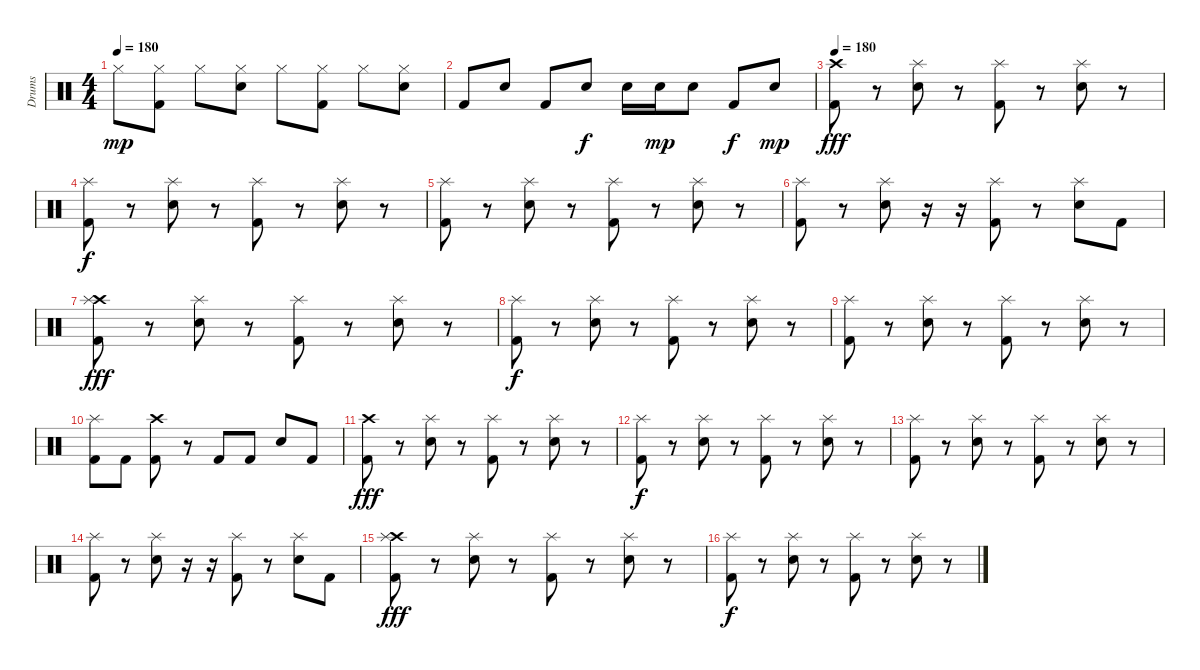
\track ("Drums" "Drums") {instrument percussion}
\staff {score}
\articulation defaults
\ts (4 4)
\tempo 180
\clef neutral
\ks c "Hi-Hat (closed)".8{dy mp}
("Hi-Hat (closed)" "Kick (hit) 2").8 "Hi-Hat (closed)".8 ("Hi-Hat (closed)" "Electric Snare (hit)").8 "Hi-Hat (closed)".8 ("Hi-Hat (closed)" "Kick (hit) 2").8 "Hi-Hat (closed)".8 ("Hi-Hat (closed)" "Electric Snare (hit)").8 |
"Kick (hit) 2".8 "Electric Snare (hit)".8 "Kick (hit) 2".8 "Electric Snare (hit)".8{dy f} "Electric Snare (hit)".16 "Electric Snare (hit)".16{dy mp} "Electric Snare (hit)".8 "Kick (hit) 2".8{dy f} "Electric Snare (hit)".8{dy mp} |
\tempo 180
("Crash high (hit)" "Kick (hit) 2").8{dy fff} r.8 ("Splash (hit)" "Electric Snare (hit)").8 r.8 ("Splash (hit)" "Kick (hit) 2").8 r.8 ("Splash (hit)" "Electric Snare (hit)").8 r.8 |
("Splash (hit)" "Kick (hit) 2").8{dy f} r.8 ("Splash (hit)" "Electric Snare (hit)").8 r.8 ("Splash (hit)" "Kick (hit) 2").8 r.8 ("Splash (hit)" "Electric Snare (hit)").8 r.8 |
("Splash (hit)" "Kick (hit) 2").8 r.8 ("Splash (hit)" "Electric Snare (hit)").8 r.8 ("Splash (hit)" "Kick (hit) 2").8 r.8 ("Splash (hit)" "Electric Snare (hit)").8 r.8 |
("Splash (hit)" "Kick (hit) 2").8 r.8 ("Splash (hit)" "Electric Snare (hit)").8 r.16 r.16 ("Splash (hit)" "Kick (hit) 2").8 r.8 ("Splash (hit)" "Electric Snare (hit)").8 "Kick (hit) 2".8 |
("Crash high (hit)" "Splash (hit)" "Kick (hit) 2").8{dy fff} r.8 ("Splash (hit)" "Electric Snare (hit)").8 r.8 ("Splash (hit)" "Kick (hit) 2").8 r.8 ("Splash (hit)" "Electric Snare (hit)").8 r.8 |
("Splash (hit)" "Kick (hit) 2").8{dy f} r.8 ("Splash (hit)" "Electric Snare (hit)").8 r.8 ("Splash (hit)" "Kick (hit) 2").8 r.8 ("Splash (hit)" "Electric Snare (hit)").8 r.8 |
("Splash (hit)" "Kick (hit) 2").8 r.8 ("Splash (hit)" "Electric Snare (hit)").8 r.8 ("Splash (hit)" "Kick (hit) 2").8 r.8 ("Splash (hit)" "Electric Snare (hit)").8 r.8 |
("Splash (hit)" "Kick (hit) 2").8 "Kick (hit) 2".8 ("Crash high (hit)" "Kick (hit) 2").8 r.8 "Kick (hit) 2".8 "Kick (hit) 2".8 "Electric Snare (hit)".8 "Kick (hit) 2".8 |
("Crash high (hit)" "Kick (hit) 2").8{dy fff} r.8 ("Splash (hit)" "Electric Snare (hit)").8 r.8 ("Splash (hit)" "Kick (hit) 2").8 r.8 ("Splash (hit)" "Electric Snare (hit)").8 r.8 |
("Splash (hit)" "Kick (hit) 2").8{dy f} r.8 ("Splash (hit)" "Electric Snare (hit)").8 r.8 ("Splash (hit)" "Kick (hit) 2").8 r.8 ("Splash (hit)" "Electric Snare (hit)").8 r.8 |
("Splash (hit)" "Kick (hit) 2").8 r.8 ("Splash (hit)" "Electric Snare (hit)").8 r.8 ("Splash (hit)" "Kick (hit) 2").8 r.8 ("Splash (hit)" "Electric Snare (hit)").8 r.8 |
("Splash (hit)" "Kick (hit) 2").8 r.8 ("Splash (hit)" "Electric Snare (hit)").8 r.16 r.16 ("Splash (hit)" "Kick (hit) 2").8 r.8 ("Splash (hit)" "Electric Snare (hit)").8 "Kick (hit) 2".8 |
("Crash high (hit)" "Splash (hit)" "Kick (hit) 2").8{dy fff} r.8 ("Splash (hit)" "Electric Snare (hit)").8 r.8 ("Splash (hit)" "Kick (hit) 2").8 r.8 ("Splash (hit)" "Electric Snare (hit)").8 r.8 |
("Splash (hit)" "Kick (hit) 2").8{dy f} r.8 ("Splash (hit)" "Electric Snare (hit)").8 r.8 ("Splash (hit)" "Kick (hit) 2").8 r.8 ("Splash (hit)" "Electric Snare (hit)").8 r.8
